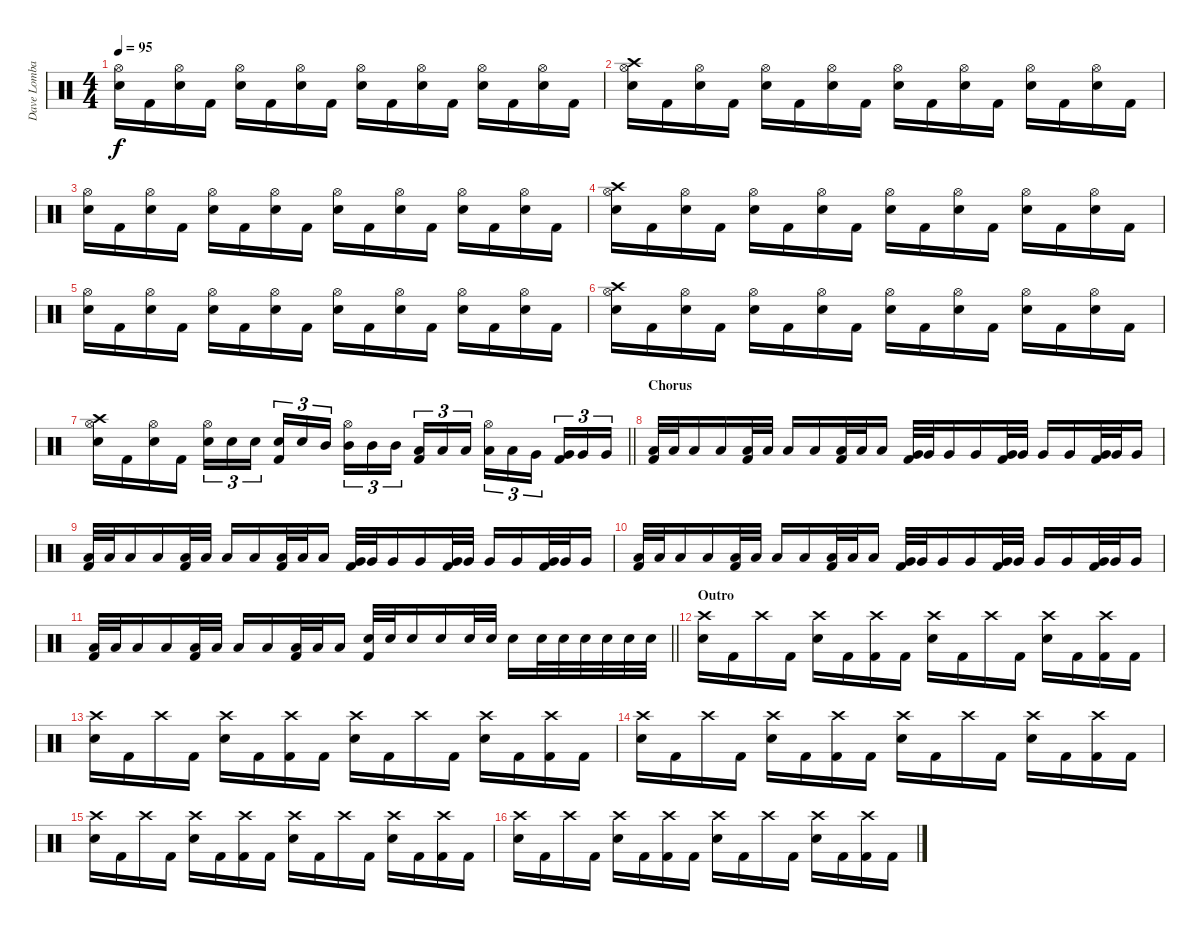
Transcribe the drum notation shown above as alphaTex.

\track ("Dave Lombardo" "Dave Lomba") {instrument percussion}
\staff {score}
\articulation defaults
\ts (4 4)
\tempo 95
\clef neutral
\ks c
("Hi-Hat (open)" "Snare (hit) 2").16{dy f} "Kick (hit) 2".16 ("Hi-Hat (open)" "Snare (hit) 2").16 "Kick (hit) 2".16 ("Hi-Hat (open)" "Snare (hit) 2").16 "Kick (hit) 2".16 ("Hi-Hat (open)" "Snare (hit) 2").16 "Kick (hit) 2".16 ("Hi-Hat (open)" "Snare (hit) 2").16 "Kick (hit) 2".16 ("Hi-Hat (open)" "Snare (hit) 2").16 "Kick (hit) 2".16 ("Hi-Hat (open)" "Snare (hit) 2").16 "Kick (hit) 2".16 ("Hi-Hat (open)" "Snare (hit) 2").16 "Kick (hit) 2".16 |
("Crash high (hit)" "Hi-Hat (open)" "Snare (hit) 2").16 "Kick (hit) 2".16 ("Hi-Hat (open)" "Snare (hit) 2").16 "Kick (hit) 2".16 ("Hi-Hat (open)" "Snare (hit) 2").16 "Kick (hit) 2".16 ("Hi-Hat (open)" "Snare (hit) 2").16 "Kick (hit) 2".16 ("Hi-Hat (open)" "Snare (hit) 2").16 "Kick (hit) 2".16 ("Hi-Hat (open)" "Snare (hit) 2").16 "Kick (hit) 2".16 ("Hi-Hat (open)" "Snare (hit) 2").16 "Kick (hit) 2".16 ("Hi-Hat (open)" "Snare (hit) 2").16 "Kick (hit) 2".16 |
("Hi-Hat (open)" "Snare (hit) 2").16 "Kick (hit) 2".16 ("Hi-Hat (open)" "Snare (hit) 2").16 "Kick (hit) 2".16 ("Hi-Hat (open)" "Snare (hit) 2").16 "Kick (hit) 2".16 ("Hi-Hat (open)" "Snare (hit) 2").16 "Kick (hit) 2".16 ("Hi-Hat (open)" "Snare (hit) 2").16 "Kick (hit) 2".16 ("Hi-Hat (open)" "Snare (hit) 2").16 "Kick (hit) 2".16 ("Hi-Hat (open)" "Snare (hit) 2").16 "Kick (hit) 2".16 ("Hi-Hat (open)" "Snare (hit) 2").16 "Kick (hit) 2".16 |
("Crash high (hit)" "Hi-Hat (open)" "Snare (hit) 2").16 "Kick (hit) 2".16 ("Hi-Hat (open)" "Snare (hit) 2").16 "Kick (hit) 2".16 ("Hi-Hat (open)" "Snare (hit) 2").16 "Kick (hit) 2".16 ("Hi-Hat (open)" "Snare (hit) 2").16 "Kick (hit) 2".16 ("Hi-Hat (open)" "Snare (hit) 2").16 "Kick (hit) 2".16 ("Hi-Hat (open)" "Snare (hit) 2").16 "Kick (hit) 2".16 ("Hi-Hat (open)" "Snare (hit) 2").16 "Kick (hit) 2".16 ("Hi-Hat (open)" "Snare (hit) 2").16 "Kick (hit) 2".16 |
("Hi-Hat (open)" "Snare (hit) 2").16 "Kick (hit) 2".16 ("Hi-Hat (open)" "Snare (hit) 2").16 "Kick (hit) 2".16 ("Hi-Hat (open)" "Snare (hit) 2").16 "Kick (hit) 2".16 ("Hi-Hat (open)" "Snare (hit) 2").16 "Kick (hit) 2".16 ("Hi-Hat (open)" "Snare (hit) 2").16 "Kick (hit) 2".16 ("Hi-Hat (open)" "Snare (hit) 2").16 "Kick (hit) 2".16 ("Hi-Hat (open)" "Snare (hit) 2").16 "Kick (hit) 2".16 ("Hi-Hat (open)" "Snare (hit) 2").16 "Kick (hit) 2".16 |
("Crash high (hit)" "Hi-Hat (open)" "Snare (hit) 2").16 "Kick (hit) 2".16 ("Hi-Hat (open)" "Snare (hit) 2").16 "Kick (hit) 2".16 ("Hi-Hat (open)" "Snare (hit) 2").16 "Kick (hit) 2".16 ("Hi-Hat (open)" "Snare (hit) 2").16 "Kick (hit) 2".16 ("Hi-Hat (open)" "Snare (hit) 2").16 "Kick (hit) 2".16 ("Hi-Hat (open)" "Snare (hit) 2").16 "Kick (hit) 2".16 ("Hi-Hat (open)" "Snare (hit) 2").16 "Kick (hit) 2".16 ("Hi-Hat (open)" "Snare (hit) 2").16 "Kick (hit) 2".16 |
\barLineRight lightlight
("Crash high (hit)" "Hi-Hat (open)" "Snare (hit) 2").16 "Kick (hit) 2".16 ("Hi-Hat (open)" "Snare (hit) 2").16 "Kick (hit) 2".16 ("Hi-Hat (open)" "Snare (hit) 2").16{tu (3 2)} "Snare (hit) 2".16{tu (3 2)} "Snare (hit) 2".16{tu (3 2) beam splitsecondary} ("Snare (hit) 2" "Kick (hit) 2").16{tu (3 2)} "Snare (hit) 2".16{tu (3 2)} "Mid Tom (hit)".16{tu (3 2)} ("Hi-Hat (open)" "Mid Tom (hit)").16{tu (3 2)} "Mid Tom (hit)".16{tu (3 2)} "Mid Tom (hit)".16{tu (3 2) beam splitsecondary} ("Low Tom (hit)" "Kick (hit) 2").16{tu (3 2)} "Low Tom (hit)".16{tu (3 2)} "Low Tom (hit)".16{tu (3 2)} ("Hi-Hat (open)" "Low Tom (hit)").16{tu (3 2)} "Low Tom (hit)".16{tu (3 2)} "Very Low Tom (hit)".16{tu (3 2) beam splitsecondary} ("Very Low Tom (hit)" "Kick (hit) 2").16{tu (3 2)} "Very Low Tom (hit)".16{tu (3 2)} "Very Low Tom (hit)".16{tu (3 2)} |
\section ("" "Chorus")
("Low Tom (hit)" "Kick (hit) 2").32 "Low Tom (hit)".32 "Low Tom (hit)".16 "Low Tom (hit)".16 ("Low Tom (hit)" "Kick (hit) 2").32 "Low Tom (hit)".32 "Low Tom (hit)".16 "Low Tom (hit)".16 ("Low Tom (hit)" "Kick (hit) 2").32 "Low Tom (hit)".32 "Low Tom (hit)".16 ("Very Low Tom (hit)" "Kick (hit) 2").32 "Very Low Tom (hit)".32 "Very Low Tom (hit)".16 "Very Low Tom (hit)".16 ("Very Low Tom (hit)" "Kick (hit) 2").32 "Very Low Tom (hit)".32 "Very Low Tom (hit)".16 "Very Low Tom (hit)".16 ("Very Low Tom (hit)" "Kick (hit) 2").32 "Very Low Tom (hit)".32 "Very Low Tom (hit)".16 |
("Low Tom (hit)" "Kick (hit) 2").32 "Low Tom (hit)".32 "Low Tom (hit)".16 "Low Tom (hit)".16 ("Low Tom (hit)" "Kick (hit) 2").32 "Low Tom (hit)".32 "Low Tom (hit)".16 "Low Tom (hit)".16 ("Low Tom (hit)" "Kick (hit) 2").32 "Low Tom (hit)".32 "Low Tom (hit)".16 ("Very Low Tom (hit)" "Kick (hit) 2").32 "Very Low Tom (hit)".32 "Very Low Tom (hit)".16 "Very Low Tom (hit)".16 ("Very Low Tom (hit)" "Kick (hit) 2").32 "Very Low Tom (hit)".32 "Very Low Tom (hit)".16 "Very Low Tom (hit)".16 ("Very Low Tom (hit)" "Kick (hit) 2").32 "Very Low Tom (hit)".32 "Very Low Tom (hit)".16 |
("Low Tom (hit)" "Kick (hit) 2").32 "Low Tom (hit)".32 "Low Tom (hit)".16 "Low Tom (hit)".16 ("Low Tom (hit)" "Kick (hit) 2").32 "Low Tom (hit)".32 "Low Tom (hit)".16 "Low Tom (hit)".16 ("Low Tom (hit)" "Kick (hit) 2").32 "Low Tom (hit)".32 "Low Tom (hit)".16 ("Very Low Tom (hit)" "Kick (hit) 2").32 "Very Low Tom (hit)".32 "Very Low Tom (hit)".16 "Very Low Tom (hit)".16 ("Very Low Tom (hit)" "Kick (hit) 2").32 "Very Low Tom (hit)".32 "Very Low Tom (hit)".16 "Very Low Tom (hit)".16 ("Very Low Tom (hit)" "Kick (hit) 2").32 "Very Low Tom (hit)".32 "Very Low Tom (hit)".16 |
\barLineRight lightlight
("Low Tom (hit)" "Kick (hit) 2").32 "Low Tom (hit)".32 "Low Tom (hit)".16 "Low Tom (hit)".16 ("Low Tom (hit)" "Kick (hit) 2").32 "Low Tom (hit)".32 "Low Tom (hit)".16 "Low Tom (hit)".16 ("Low Tom (hit)" "Kick (hit) 2").32 "Low Tom (hit)".32 "Low Tom (hit)".16 ("Snare (hit) 2" "Kick (hit) 2").32 "Snare (hit) 2".32 "Snare (hit) 2".16 "Snare (hit) 2".16 "Snare (hit) 2".32 "Snare (hit) 2".32 "Snare (hit) 2".16 "Snare (hit) 2".32 "Snare (hit) 2".32 "Snare (hit) 2".32 "Snare (hit) 2".32 "Snare (hit) 2".32 "Snare (hit) 2".32 |
\section ("" "Outro")
("Crash high (hit)" "Snare (hit) 2").16 "Kick (hit) 2".16 "Crash high (hit)".16 "Kick (hit) 2".16 ("Crash high (hit)" "Snare (hit) 2").16 "Kick (hit) 2".16 ("Crash high (hit)" "Kick (hit) 2").16 "Kick (hit) 2".16 ("Crash high (hit)" "Snare (hit) 2").16 "Kick (hit) 2".16 "Crash high (hit)".16 "Kick (hit) 2".16 ("Crash high (hit)" "Snare (hit) 2").16 "Kick (hit) 2".16 ("Crash high (hit)" "Kick (hit) 2").16 "Kick (hit) 2".16 |
("Crash high (hit)" "Snare (hit) 2").16 "Kick (hit) 2".16 "Crash high (hit)".16 "Kick (hit) 2".16 ("Crash high (hit)" "Snare (hit) 2").16 "Kick (hit) 2".16 ("Crash high (hit)" "Kick (hit) 2").16 "Kick (hit) 2".16 ("Crash high (hit)" "Snare (hit) 2").16 "Kick (hit) 2".16 "Crash high (hit)".16 "Kick (hit) 2".16 ("Crash high (hit)" "Snare (hit) 2").16 "Kick (hit) 2".16 ("Crash high (hit)" "Kick (hit) 2").16 "Kick (hit) 2".16 |
("Crash high (hit)" "Snare (hit) 2").16 "Kick (hit) 2".16 "Crash high (hit)".16 "Kick (hit) 2".16 ("Crash high (hit)" "Snare (hit) 2").16 "Kick (hit) 2".16 ("Crash high (hit)" "Kick (hit) 2").16 "Kick (hit) 2".16 ("Crash high (hit)" "Snare (hit) 2").16 "Kick (hit) 2".16 "Crash high (hit)".16 "Kick (hit) 2".16 ("Crash high (hit)" "Snare (hit) 2").16 "Kick (hit) 2".16 ("Crash high (hit)" "Kick (hit) 2").16 "Kick (hit) 2".16 |
("Crash high (hit)" "Snare (hit) 2").16 "Kick (hit) 2".16 "Crash high (hit)".16 "Kick (hit) 2".16 ("Crash high (hit)" "Snare (hit) 2").16 "Kick (hit) 2".16 ("Crash high (hit)" "Kick (hit) 2").16 "Kick (hit) 2".16 ("Crash high (hit)" "Snare (hit) 2").16 "Kick (hit) 2".16 "Crash high (hit)".16 "Kick (hit) 2".16 ("Crash high (hit)" "Snare (hit) 2").16 "Kick (hit) 2".16 ("Crash high (hit)" "Kick (hit) 2").16 "Kick (hit) 2".16 |
("Crash high (hit)" "Snare (hit) 2").16 "Kick (hit) 2".16 "Crash high (hit)".16 "Kick (hit) 2".16 ("Crash high (hit)" "Snare (hit) 2").16 "Kick (hit) 2".16 ("Crash high (hit)" "Kick (hit) 2").16 "Kick (hit) 2".16 ("Crash high (hit)" "Snare (hit) 2").16 "Kick (hit) 2".16 "Crash high (hit)".16 "Kick (hit) 2".16 ("Crash high (hit)" "Snare (hit) 2").16 "Kick (hit) 2".16 ("Crash high (hit)" "Kick (hit) 2").16 "Kick (hit) 2".16
